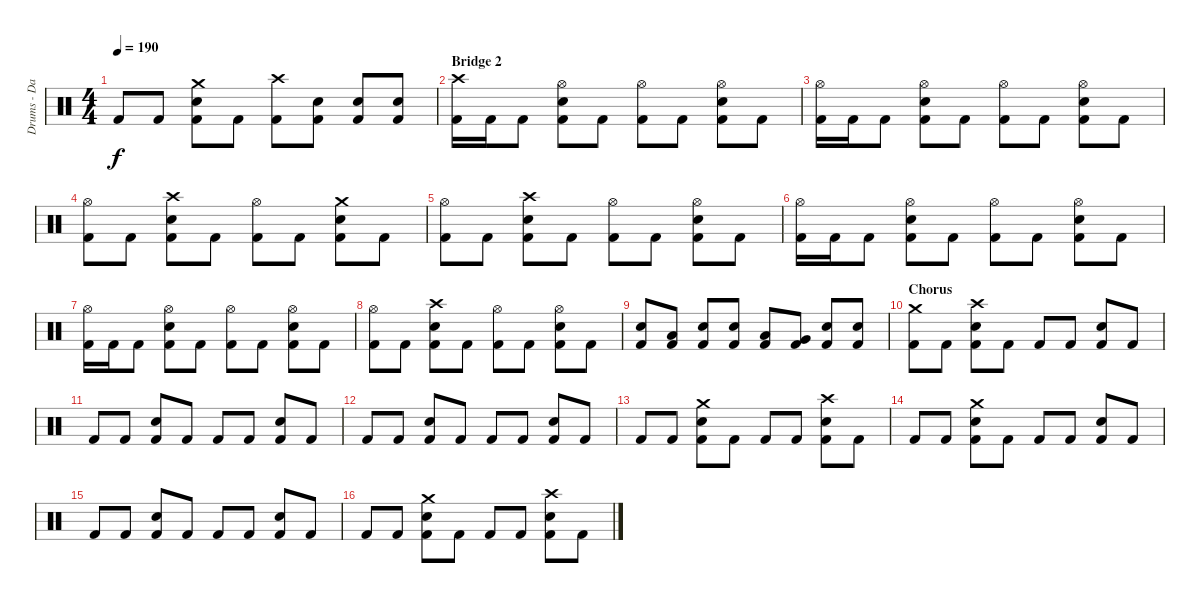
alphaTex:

\track ("Drums - Daniel Zimmermann" "Drums - Da") {instrument percussion}
\staff {score}
\articulation defaults
\ts (4 4)
\tempo 190
\clef neutral
\ks c "Kick (hit) 2".8{dy f} "Kick (hit) 2".8
("Kick (hit) 2" "Electric Snare (hit)" "Crash medium (hit)").8 "Kick (hit) 2".8 ("Kick (hit) 2" "Crash high (hit)").8 ("Kick (hit) 2" "Electric Snare (hit)").8 ("Kick (hit) 2" "Electric Snare (hit)").8 ("Kick (hit) 2" "Electric Snare (hit)").8 |
\section ("" "Bridge 2")
("Kick (hit) 2" "Crash high (hit)").16 "Kick (hit) 2".16 "Kick (hit) 2".8 ("Kick (hit) 2" "Electric Snare (hit)" "Hi-Hat (open)").8 "Kick (hit) 2".8 ("Kick (hit) 2" "Hi-Hat (open)").8 "Kick (hit) 2".8 ("Kick (hit) 2" "Electric Snare (hit)" "Hi-Hat (open)").8 "Kick (hit) 2".8 |
("Kick (hit) 2" "Hi-Hat (open)").16 "Kick (hit) 2".16 "Kick (hit) 2".8 ("Kick (hit) 2" "Electric Snare (hit)" "Hi-Hat (open)").8 "Kick (hit) 2".8 ("Kick (hit) 2" "Hi-Hat (open)").8 "Kick (hit) 2".8 ("Kick (hit) 2" "Electric Snare (hit)" "Hi-Hat (open)").8 "Kick (hit) 2".8 |
("Kick (hit) 2" "Hi-Hat (open)").8 "Kick (hit) 2".8 ("Kick (hit) 2" "Electric Snare (hit)" "Crash high (hit)").8 "Kick (hit) 2".8 ("Kick (hit) 2" "Hi-Hat (open)").8 "Kick (hit) 2".8 ("Kick (hit) 2" "Electric Snare (hit)" "Crash medium (hit)").8 "Kick (hit) 2".8 |
("Kick (hit) 2" "Hi-Hat (open)").8 "Kick (hit) 2".8 ("Kick (hit) 2" "Electric Snare (hit)" "Crash high (hit)").8 "Kick (hit) 2".8 ("Kick (hit) 2" "Hi-Hat (open)").8 "Kick (hit) 2".8 ("Kick (hit) 2" "Electric Snare (hit)" "Hi-Hat (open)").8 "Kick (hit) 2".8 |
("Kick (hit) 2" "Hi-Hat (open)").16 "Kick (hit) 2".16 "Kick (hit) 2".8 ("Kick (hit) 2" "Electric Snare (hit)" "Hi-Hat (open)").8 "Kick (hit) 2".8 ("Kick (hit) 2" "Hi-Hat (open)").8 "Kick (hit) 2".8 ("Kick (hit) 2" "Electric Snare (hit)" "Hi-Hat (open)").8 "Kick (hit) 2".8 |
("Kick (hit) 2" "Hi-Hat (open)").16 "Kick (hit) 2".16 "Kick (hit) 2".8 ("Kick (hit) 2" "Electric Snare (hit)" "Hi-Hat (open)").8 "Kick (hit) 2".8 ("Kick (hit) 2" "Hi-Hat (open)").8 "Kick (hit) 2".8 ("Kick (hit) 2" "Electric Snare (hit)" "Hi-Hat (open)").8 "Kick (hit) 2".8 |
("Kick (hit) 2" "Hi-Hat (open)").8 "Kick (hit) 2".8 ("Kick (hit) 2" "Electric Snare (hit)" "Crash high (hit)").8 "Kick (hit) 2".8 ("Kick (hit) 2" "Hi-Hat (open)").8 "Kick (hit) 2".8 ("Kick (hit) 2" "Electric Snare (hit)" "Hi-Hat (open)").8 "Kick (hit) 2".8 |
("Kick (hit) 2" "Electric Snare (hit)").8 ("Kick (hit) 2" "Low Tom (hit)").8 ("Kick (hit) 2" "Electric Snare (hit)").8 ("Kick (hit) 2" "Electric Snare (hit)").8 ("Kick (hit) 2" "Low Tom (hit)").8 ("Kick (hit) 2" "Very Low Tom (hit)").8 ("Kick (hit) 2" "Electric Snare (hit)").8 ("Kick (hit) 2" "Electric Snare (hit)").8 |
\section ("" "Chorus")
("Kick (hit) 2" "Crash medium (hit)").8 "Kick (hit) 2".8 ("Kick (hit) 2" "Electric Snare (hit)" "Crash high (hit)").8 "Kick (hit) 2".8 "Kick (hit) 2".8 "Kick (hit) 2".8 ("Kick (hit) 2" "Electric Snare (hit)").8 "Kick (hit) 2".8 |
"Kick (hit) 2".8 "Kick (hit) 2".8 ("Kick (hit) 2" "Electric Snare (hit)").8 "Kick (hit) 2".8 "Kick (hit) 2".8 "Kick (hit) 2".8 ("Kick (hit) 2" "Electric Snare (hit)").8 "Kick (hit) 2".8 |
"Kick (hit) 2".8 "Kick (hit) 2".8 ("Kick (hit) 2" "Electric Snare (hit)").8 "Kick (hit) 2".8 "Kick (hit) 2".8 "Kick (hit) 2".8 ("Kick (hit) 2" "Electric Snare (hit)").8 "Kick (hit) 2".8 |
"Kick (hit) 2".8 "Kick (hit) 2".8 ("Kick (hit) 2" "Electric Snare (hit)" "Crash medium (hit)").8 "Kick (hit) 2".8 "Kick (hit) 2".8 "Kick (hit) 2".8 ("Kick (hit) 2" "Electric Snare (hit)" "Crash high (hit)").8 "Kick (hit) 2".8 |
"Kick (hit) 2".8 "Kick (hit) 2".8 ("Kick (hit) 2" "Electric Snare (hit)" "Crash medium (hit)").8 "Kick (hit) 2".8 "Kick (hit) 2".8 "Kick (hit) 2".8 ("Kick (hit) 2" "Electric Snare (hit)").8 "Kick (hit) 2".8 |
"Kick (hit) 2".8 "Kick (hit) 2".8 ("Kick (hit) 2" "Electric Snare (hit)").8 "Kick (hit) 2".8 "Kick (hit) 2".8 "Kick (hit) 2".8 ("Kick (hit) 2" "Electric Snare (hit)").8 "Kick (hit) 2".8 |
"Kick (hit) 2".8 "Kick (hit) 2".8 ("Kick (hit) 2" "Electric Snare (hit)" "Crash medium (hit)").8 "Kick (hit) 2".8 "Kick (hit) 2".8 "Kick (hit) 2".8 ("Kick (hit) 2" "Electric Snare (hit)" "Crash high (hit)").8 "Kick (hit) 2".8
